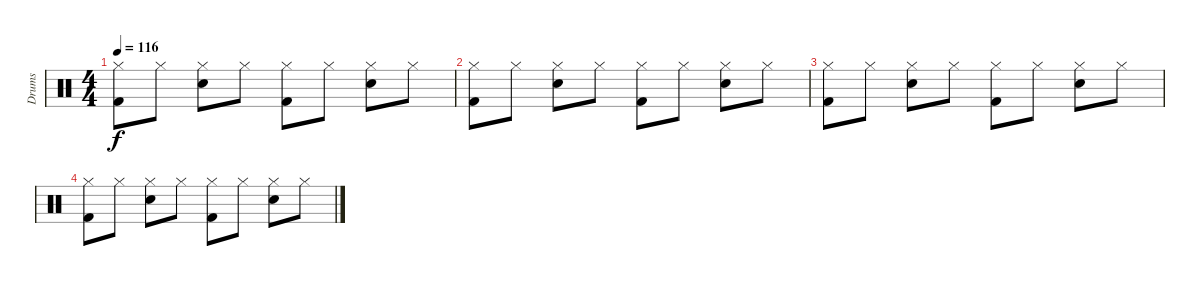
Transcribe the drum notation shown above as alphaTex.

\track ("Drums" "Drums") {instrument percussion}
\staff {score}
\articulation defaults
\ts (4 4)
\tempo 116
\clef neutral
\ks c
("Hi-Hat (closed)" "Kick (hit) 2").8{dy f} "Hi-Hat (closed)".8 ("Hi-Hat (closed)" "Snare (hit) 2").8 "Hi-Hat (closed)".8 ("Hi-Hat (closed)" "Kick (hit) 2").8 "Hi-Hat (closed)".8 ("Hi-Hat (closed)" "Snare (hit) 2").8 "Hi-Hat (closed)".8 |
("Hi-Hat (closed)" "Kick (hit) 2").8 "Hi-Hat (closed)".8 ("Hi-Hat (closed)" "Snare (hit) 2").8 "Hi-Hat (closed)".8 ("Hi-Hat (closed)" "Kick (hit) 2").8 "Hi-Hat (closed)".8 ("Hi-Hat (closed)" "Snare (hit) 2").8 "Hi-Hat (closed)".8 |
("Hi-Hat (closed)" "Kick (hit) 2").8 "Hi-Hat (closed)".8 ("Hi-Hat (closed)" "Snare (hit) 2").8 "Hi-Hat (closed)".8 ("Hi-Hat (closed)" "Kick (hit) 2").8 "Hi-Hat (closed)".8 ("Hi-Hat (closed)" "Snare (hit) 2").8 "Hi-Hat (closed)".8 |
("Hi-Hat (closed)" "Kick (hit) 2").8 "Hi-Hat (closed)".8 ("Hi-Hat (closed)" "Snare (hit) 2").8 "Hi-Hat (closed)".8 ("Hi-Hat (closed)" "Kick (hit) 2").8 "Hi-Hat (closed)".8 ("Hi-Hat (closed)" "Snare (hit) 2").8 "Hi-Hat (closed)".8
